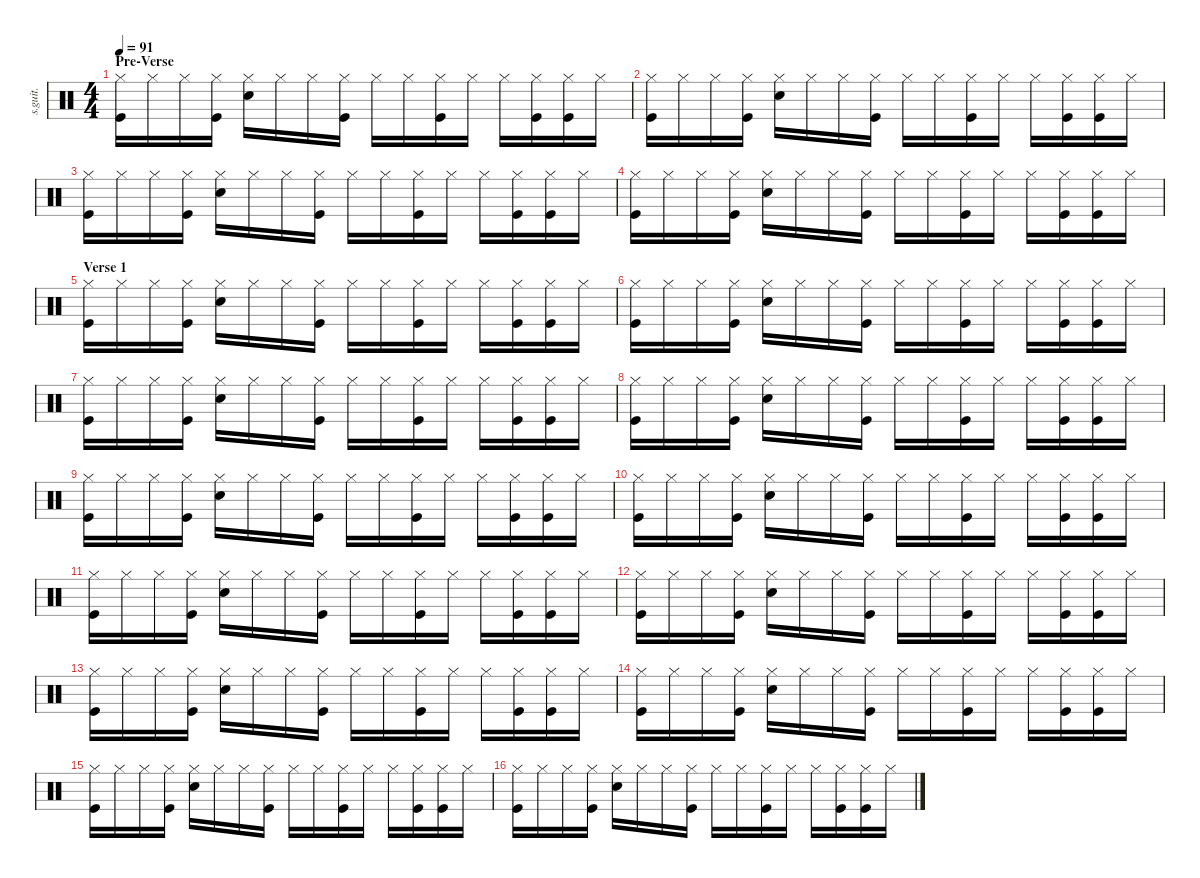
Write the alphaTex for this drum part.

\defaultSystemsLayout 4
\hideDynamics
\bracketExtendMode nobrackets
\track ("Chad" "s.guit.") {instrument percussion}
\staff {score}
\articulation defaults
\ts (4 4)
\section ("" "Pre-Verse")
\tempo 91
\clef neutral
\ks c
("Hi-Hat (closed)" "Kick (hit)").16{dy f} "Hi-Hat (closed)".16 "Hi-Hat (closed)".16 ("Hi-Hat (closed)" "Kick (hit)").16 ("Hi-Hat (closed)" "Snare (hit) 2").16 "Hi-Hat (closed)".16 "Hi-Hat (closed)".16 ("Hi-Hat (closed)" "Kick (hit)").16 "Hi-Hat (closed)".16 "Hi-Hat (closed)".16 ("Hi-Hat (closed)" "Kick (hit)").16 "Hi-Hat (closed)".16 "Hi-Hat (closed)".16 ("Hi-Hat (closed)" "Kick (hit)").16 ("Hi-Hat (closed)" "Kick (hit)").16 "Hi-Hat (closed)".16 |
("Hi-Hat (closed)" "Kick (hit)").16 "Hi-Hat (closed)".16 "Hi-Hat (closed)".16 ("Hi-Hat (closed)" "Kick (hit)").16 ("Hi-Hat (closed)" "Snare (hit) 2").16 "Hi-Hat (closed)".16 "Hi-Hat (closed)".16 ("Hi-Hat (closed)" "Kick (hit)").16 "Hi-Hat (closed)".16 "Hi-Hat (closed)".16 ("Hi-Hat (closed)" "Kick (hit)").16 "Hi-Hat (closed)".16 "Hi-Hat (closed)".16 ("Hi-Hat (closed)" "Kick (hit)").16 ("Hi-Hat (closed)" "Kick (hit)").16 "Hi-Hat (closed)".16 |
("Hi-Hat (closed)" "Kick (hit)").16 "Hi-Hat (closed)".16 "Hi-Hat (closed)".16 ("Hi-Hat (closed)" "Kick (hit)").16 ("Hi-Hat (closed)" "Snare (hit) 2").16 "Hi-Hat (closed)".16 "Hi-Hat (closed)".16 ("Hi-Hat (closed)" "Kick (hit)").16 "Hi-Hat (closed)".16 "Hi-Hat (closed)".16 ("Hi-Hat (closed)" "Kick (hit)").16 "Hi-Hat (closed)".16 "Hi-Hat (closed)".16 ("Hi-Hat (closed)" "Kick (hit)").16 ("Hi-Hat (closed)" "Kick (hit)").16 "Hi-Hat (closed)".16 |
("Hi-Hat (closed)" "Kick (hit)").16 "Hi-Hat (closed)".16 "Hi-Hat (closed)".16 ("Hi-Hat (closed)" "Kick (hit)").16 ("Hi-Hat (closed)" "Snare (hit) 2").16 "Hi-Hat (closed)".16 "Hi-Hat (closed)".16 ("Hi-Hat (closed)" "Kick (hit)").16 "Hi-Hat (closed)".16 "Hi-Hat (closed)".16 ("Hi-Hat (closed)" "Kick (hit)").16 "Hi-Hat (closed)".16 "Hi-Hat (closed)".16 ("Hi-Hat (closed)" "Kick (hit)").16 ("Hi-Hat (closed)" "Kick (hit)").16 "Hi-Hat (closed)".16 |
\section ("" "Verse 1")
("Hi-Hat (closed)" "Kick (hit)").16 "Hi-Hat (closed)".16 "Hi-Hat (closed)".16 ("Hi-Hat (closed)" "Kick (hit)").16 ("Hi-Hat (closed)" "Snare (hit) 2").16 "Hi-Hat (closed)".16 "Hi-Hat (closed)".16 ("Hi-Hat (closed)" "Kick (hit)").16 "Hi-Hat (closed)".16 "Hi-Hat (closed)".16 ("Hi-Hat (closed)" "Kick (hit)").16 "Hi-Hat (closed)".16 "Hi-Hat (closed)".16 ("Hi-Hat (closed)" "Kick (hit)").16 ("Hi-Hat (closed)" "Kick (hit)").16 "Hi-Hat (closed)".16 |
("Hi-Hat (closed)" "Kick (hit)").16 "Hi-Hat (closed)".16 "Hi-Hat (closed)".16 ("Hi-Hat (closed)" "Kick (hit)").16 ("Hi-Hat (closed)" "Snare (hit) 2").16 "Hi-Hat (closed)".16 "Hi-Hat (closed)".16 ("Hi-Hat (closed)" "Kick (hit)").16 "Hi-Hat (closed)".16 "Hi-Hat (closed)".16 ("Hi-Hat (closed)" "Kick (hit)").16 "Hi-Hat (closed)".16 "Hi-Hat (closed)".16 ("Hi-Hat (closed)" "Kick (hit)").16 ("Hi-Hat (closed)" "Kick (hit)").16 "Hi-Hat (closed)".16 |
("Hi-Hat (closed)" "Kick (hit)").16 "Hi-Hat (closed)".16 "Hi-Hat (closed)".16 ("Hi-Hat (closed)" "Kick (hit)").16 ("Hi-Hat (closed)" "Snare (hit) 2").16 "Hi-Hat (closed)".16 "Hi-Hat (closed)".16 ("Hi-Hat (closed)" "Kick (hit)").16 "Hi-Hat (closed)".16 "Hi-Hat (closed)".16 ("Hi-Hat (closed)" "Kick (hit)").16 "Hi-Hat (closed)".16 "Hi-Hat (closed)".16 ("Hi-Hat (closed)" "Kick (hit)").16 ("Hi-Hat (closed)" "Kick (hit)").16 "Hi-Hat (closed)".16 |
("Hi-Hat (closed)" "Kick (hit)").16 "Hi-Hat (closed)".16 "Hi-Hat (closed)".16 ("Hi-Hat (closed)" "Kick (hit)").16 ("Hi-Hat (closed)" "Snare (hit) 2").16 "Hi-Hat (closed)".16 "Hi-Hat (closed)".16 ("Hi-Hat (closed)" "Kick (hit)").16 "Hi-Hat (closed)".16 "Hi-Hat (closed)".16 ("Hi-Hat (closed)" "Kick (hit)").16 "Hi-Hat (closed)".16 "Hi-Hat (closed)".16 ("Hi-Hat (closed)" "Kick (hit)").16 ("Hi-Hat (closed)" "Kick (hit)").16 "Hi-Hat (closed)".16 |
("Hi-Hat (closed)" "Kick (hit)").16 "Hi-Hat (closed)".16 "Hi-Hat (closed)".16 ("Hi-Hat (closed)" "Kick (hit)").16 ("Hi-Hat (closed)" "Snare (hit) 2").16 "Hi-Hat (closed)".16 "Hi-Hat (closed)".16 ("Hi-Hat (closed)" "Kick (hit)").16 "Hi-Hat (closed)".16 "Hi-Hat (closed)".16 ("Hi-Hat (closed)" "Kick (hit)").16 "Hi-Hat (closed)".16 "Hi-Hat (closed)".16 ("Hi-Hat (closed)" "Kick (hit)").16 ("Hi-Hat (closed)" "Kick (hit)").16 "Hi-Hat (closed)".16 |
("Hi-Hat (closed)" "Kick (hit)").16 "Hi-Hat (closed)".16 "Hi-Hat (closed)".16 ("Hi-Hat (closed)" "Kick (hit)").16 ("Hi-Hat (closed)" "Snare (hit) 2").16 "Hi-Hat (closed)".16 "Hi-Hat (closed)".16 ("Hi-Hat (closed)" "Kick (hit)").16 "Hi-Hat (closed)".16 "Hi-Hat (closed)".16 ("Hi-Hat (closed)" "Kick (hit)").16 "Hi-Hat (closed)".16 "Hi-Hat (closed)".16 ("Hi-Hat (closed)" "Kick (hit)").16 ("Hi-Hat (closed)" "Kick (hit)").16 "Hi-Hat (closed)".16 |
("Hi-Hat (closed)" "Kick (hit)").16 "Hi-Hat (closed)".16 "Hi-Hat (closed)".16 ("Hi-Hat (closed)" "Kick (hit)").16 ("Hi-Hat (closed)" "Snare (hit) 2").16 "Hi-Hat (closed)".16 "Hi-Hat (closed)".16 ("Hi-Hat (closed)" "Kick (hit)").16 "Hi-Hat (closed)".16 "Hi-Hat (closed)".16 ("Hi-Hat (closed)" "Kick (hit)").16 "Hi-Hat (closed)".16 "Hi-Hat (closed)".16 ("Hi-Hat (closed)" "Kick (hit)").16 ("Hi-Hat (closed)" "Kick (hit)").16 "Hi-Hat (closed)".16 |
("Hi-Hat (closed)" "Kick (hit)").16 "Hi-Hat (closed)".16 "Hi-Hat (closed)".16 ("Hi-Hat (closed)" "Kick (hit)").16 ("Hi-Hat (closed)" "Snare (hit) 2").16 "Hi-Hat (closed)".16 "Hi-Hat (closed)".16 ("Hi-Hat (closed)" "Kick (hit)").16 "Hi-Hat (closed)".16 "Hi-Hat (closed)".16 ("Hi-Hat (closed)" "Kick (hit)").16 "Hi-Hat (closed)".16 "Hi-Hat (closed)".16 ("Hi-Hat (closed)" "Kick (hit)").16 ("Hi-Hat (closed)" "Kick (hit)").16 "Hi-Hat (closed)".16 |
("Hi-Hat (closed)" "Kick (hit)").16 "Hi-Hat (closed)".16 "Hi-Hat (closed)".16 ("Hi-Hat (closed)" "Kick (hit)").16 ("Hi-Hat (closed)" "Snare (hit) 2").16 "Hi-Hat (closed)".16 "Hi-Hat (closed)".16 ("Hi-Hat (closed)" "Kick (hit)").16 "Hi-Hat (closed)".16 "Hi-Hat (closed)".16 ("Hi-Hat (closed)" "Kick (hit)").16 "Hi-Hat (closed)".16 "Hi-Hat (closed)".16 ("Hi-Hat (closed)" "Kick (hit)").16 ("Hi-Hat (closed)" "Kick (hit)").16 "Hi-Hat (closed)".16 |
("Hi-Hat (closed)" "Kick (hit)").16 "Hi-Hat (closed)".16 "Hi-Hat (closed)".16 ("Hi-Hat (closed)" "Kick (hit)").16 ("Hi-Hat (closed)" "Snare (hit) 2").16 "Hi-Hat (closed)".16 "Hi-Hat (closed)".16 ("Hi-Hat (closed)" "Kick (hit)").16 "Hi-Hat (closed)".16 "Hi-Hat (closed)".16 ("Hi-Hat (closed)" "Kick (hit)").16 "Hi-Hat (closed)".16 "Hi-Hat (closed)".16 ("Hi-Hat (closed)" "Kick (hit)").16 ("Hi-Hat (closed)" "Kick (hit)").16 "Hi-Hat (closed)".16 |
("Hi-Hat (closed)" "Kick (hit)").16 "Hi-Hat (closed)".16 "Hi-Hat (closed)".16 ("Hi-Hat (closed)" "Kick (hit)").16 ("Hi-Hat (closed)" "Snare (hit) 2").16 "Hi-Hat (closed)".16 "Hi-Hat (closed)".16 ("Hi-Hat (closed)" "Kick (hit)").16 "Hi-Hat (closed)".16 "Hi-Hat (closed)".16 ("Hi-Hat (closed)" "Kick (hit)").16 "Hi-Hat (closed)".16 "Hi-Hat (closed)".16 ("Hi-Hat (closed)" "Kick (hit)").16 ("Hi-Hat (closed)" "Kick (hit)").16 "Hi-Hat (closed)".16 |
("Hi-Hat (closed)" "Kick (hit)").16 "Hi-Hat (closed)".16 "Hi-Hat (closed)".16 ("Hi-Hat (closed)" "Kick (hit)").16 ("Hi-Hat (closed)" "Snare (hit) 2").16 "Hi-Hat (closed)".16 "Hi-Hat (closed)".16 ("Hi-Hat (closed)" "Kick (hit)").16 "Hi-Hat (closed)".16 "Hi-Hat (closed)".16 ("Hi-Hat (closed)" "Kick (hit)").16 "Hi-Hat (closed)".16 "Hi-Hat (closed)".16 ("Hi-Hat (closed)" "Kick (hit)").16 ("Hi-Hat (closed)" "Kick (hit)").16 "Hi-Hat (closed)".16
